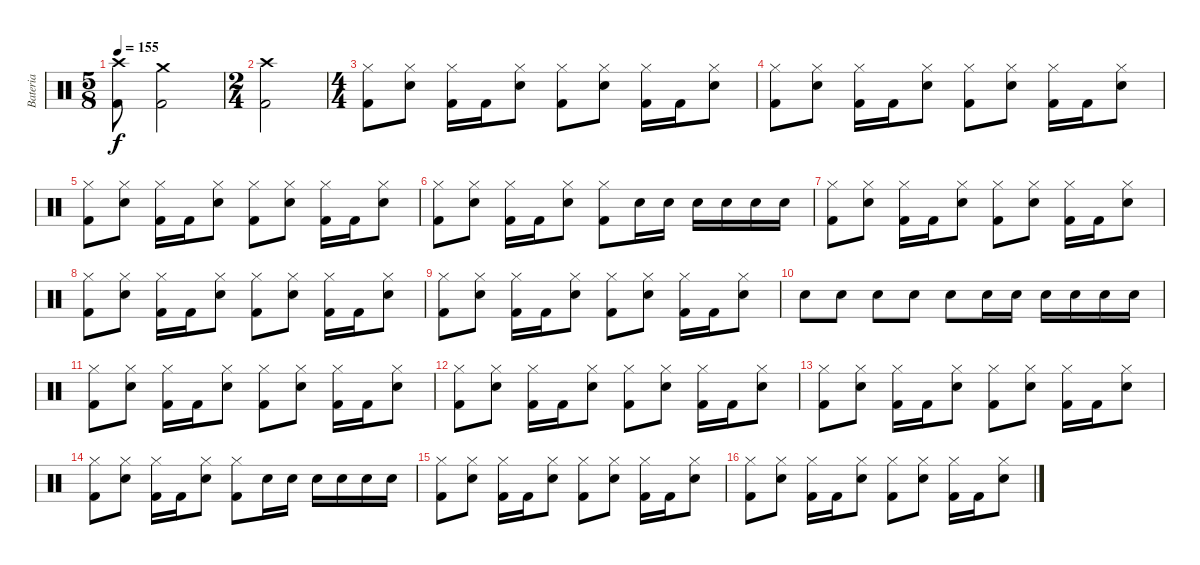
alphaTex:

\track ("Bateria" "Bateria") {instrument percussion}
\staff {score}
\articulation defaults
\ts (5 8)
\tempo 155
\clef neutral
\ks c
("Kick (hit) 2"{t} "Crash high (hit)"{t}).8{dy f} ("Kick (hit) 2" "Crash medium (hit)").2 |
\ts (2 4)
("Kick (hit) 2" "Crash high (hit)").2 |
\ts (4 4)
("Kick (hit) 2" "Hi-Hat (closed)").8 ("Electric Snare (hit)" "Hi-Hat (closed)").8 ("Kick (hit) 2" "Hi-Hat (closed)").16 "Kick (hit) 2".16 ("Electric Snare (hit)" "Hi-Hat (closed)").8 ("Kick (hit) 2" "Hi-Hat (closed)").8 ("Electric Snare (hit)" "Hi-Hat (closed)").8 ("Kick (hit) 2" "Hi-Hat (closed)").16 "Kick (hit) 2".16 ("Electric Snare (hit)" "Hi-Hat (closed)").8 |
("Kick (hit) 2" "Hi-Hat (closed)").8 ("Electric Snare (hit)" "Hi-Hat (closed)").8 ("Kick (hit) 2" "Hi-Hat (closed)").16 "Kick (hit) 2".16 ("Electric Snare (hit)" "Hi-Hat (closed)").8 ("Kick (hit) 2" "Hi-Hat (closed)").8 ("Electric Snare (hit)" "Hi-Hat (closed)").8 ("Kick (hit) 2" "Hi-Hat (closed)").16 "Kick (hit) 2".16 ("Electric Snare (hit)" "Hi-Hat (closed)").8 |
("Kick (hit) 2" "Hi-Hat (closed)").8 ("Electric Snare (hit)" "Hi-Hat (closed)").8 ("Kick (hit) 2" "Hi-Hat (closed)").16 "Kick (hit) 2".16 ("Electric Snare (hit)" "Hi-Hat (closed)").8 ("Kick (hit) 2" "Hi-Hat (closed)").8 ("Electric Snare (hit)" "Hi-Hat (closed)").8 ("Kick (hit) 2" "Hi-Hat (closed)").16 "Kick (hit) 2".16 ("Electric Snare (hit)" "Hi-Hat (closed)").8 |
("Kick (hit) 2" "Hi-Hat (closed)").8 ("Electric Snare (hit)" "Hi-Hat (closed)").8 ("Kick (hit) 2" "Hi-Hat (closed)").16 "Kick (hit) 2".16 ("Electric Snare (hit)" "Hi-Hat (closed)").8 ("Kick (hit) 2" "Hi-Hat (closed)").8 "Electric Snare (hit)".16 "Electric Snare (hit)".16 "Electric Snare (hit)".16 "Electric Snare (hit)".16 "Electric Snare (hit)".16 "Electric Snare (hit)".16 |
("Kick (hit) 2" "Hi-Hat (closed)").8 ("Electric Snare (hit)" "Hi-Hat (closed)").8 ("Kick (hit) 2" "Hi-Hat (closed)").16 "Kick (hit) 2".16 ("Electric Snare (hit)" "Hi-Hat (closed)").8 ("Kick (hit) 2" "Hi-Hat (closed)").8 ("Electric Snare (hit)" "Hi-Hat (closed)").8 ("Kick (hit) 2" "Hi-Hat (closed)").16 "Kick (hit) 2".16 ("Electric Snare (hit)" "Hi-Hat (closed)").8 |
("Kick (hit) 2" "Hi-Hat (closed)").8 ("Electric Snare (hit)" "Hi-Hat (closed)").8 ("Kick (hit) 2" "Hi-Hat (closed)").16 "Kick (hit) 2".16 ("Electric Snare (hit)" "Hi-Hat (closed)").8 ("Kick (hit) 2" "Hi-Hat (closed)").8 ("Electric Snare (hit)" "Hi-Hat (closed)").8 ("Kick (hit) 2" "Hi-Hat (closed)").16 "Kick (hit) 2".16 ("Electric Snare (hit)" "Hi-Hat (closed)").8 |
("Kick (hit) 2" "Hi-Hat (closed)").8 ("Electric Snare (hit)" "Hi-Hat (closed)").8 ("Kick (hit) 2" "Hi-Hat (closed)").16 "Kick (hit) 2".16 ("Electric Snare (hit)" "Hi-Hat (closed)").8 ("Kick (hit) 2" "Hi-Hat (closed)").8 ("Electric Snare (hit)" "Hi-Hat (closed)").8 ("Kick (hit) 2" "Hi-Hat (closed)").16 "Kick (hit) 2".16 ("Electric Snare (hit)" "Hi-Hat (closed)").8 |
"Electric Snare (hit)".8 "Electric Snare (hit)".8 "Electric Snare (hit)".8 "Electric Snare (hit)".8 "Electric Snare (hit)".8 "Electric Snare (hit)".16 "Electric Snare (hit)".16 "Electric Snare (hit)".16 "Electric Snare (hit)".16 "Electric Snare (hit)".16 "Electric Snare (hit)".16 |
("Kick (hit) 2" "Hi-Hat (closed)").8 ("Electric Snare (hit)" "Hi-Hat (closed)").8 ("Kick (hit) 2" "Hi-Hat (closed)").16 "Kick (hit) 2".16 ("Electric Snare (hit)" "Hi-Hat (closed)").8 ("Kick (hit) 2" "Hi-Hat (closed)").8 ("Electric Snare (hit)" "Hi-Hat (closed)").8 ("Kick (hit) 2" "Hi-Hat (closed)").16 "Kick (hit) 2".16 ("Electric Snare (hit)" "Hi-Hat (closed)").8 |
("Kick (hit) 2" "Hi-Hat (closed)").8 ("Electric Snare (hit)" "Hi-Hat (closed)").8 ("Kick (hit) 2" "Hi-Hat (closed)").16 "Kick (hit) 2".16 ("Electric Snare (hit)" "Hi-Hat (closed)").8 ("Kick (hit) 2" "Hi-Hat (closed)").8 ("Electric Snare (hit)" "Hi-Hat (closed)").8 ("Kick (hit) 2" "Hi-Hat (closed)").16 "Kick (hit) 2".16 ("Electric Snare (hit)" "Hi-Hat (closed)").8 |
("Kick (hit) 2" "Hi-Hat (closed)").8 ("Electric Snare (hit)" "Hi-Hat (closed)").8 ("Kick (hit) 2" "Hi-Hat (closed)").16 "Kick (hit) 2".16 ("Electric Snare (hit)" "Hi-Hat (closed)").8 ("Kick (hit) 2" "Hi-Hat (closed)").8 ("Electric Snare (hit)" "Hi-Hat (closed)").8 ("Kick (hit) 2" "Hi-Hat (closed)").16 "Kick (hit) 2".16 ("Electric Snare (hit)" "Hi-Hat (closed)").8 |
("Kick (hit) 2" "Hi-Hat (closed)").8 ("Electric Snare (hit)" "Hi-Hat (closed)").8 ("Kick (hit) 2" "Hi-Hat (closed)").16 "Kick (hit) 2".16 ("Electric Snare (hit)" "Hi-Hat (closed)").8 ("Kick (hit) 2" "Hi-Hat (closed)").8 "Electric Snare (hit)".16 "Electric Snare (hit)".16 "Electric Snare (hit)".16 "Electric Snare (hit)".16 "Electric Snare (hit)".16 "Electric Snare (hit)".16 |
("Kick (hit) 2" "Hi-Hat (closed)").8 ("Electric Snare (hit)" "Hi-Hat (closed)").8 ("Kick (hit) 2" "Hi-Hat (closed)").16 "Kick (hit) 2".16 ("Electric Snare (hit)" "Hi-Hat (closed)").8 ("Kick (hit) 2" "Hi-Hat (closed)").8 ("Electric Snare (hit)" "Hi-Hat (closed)").8 ("Kick (hit) 2" "Hi-Hat (closed)").16 "Kick (hit) 2".16 ("Electric Snare (hit)" "Hi-Hat (closed)").8 |
("Kick (hit) 2" "Hi-Hat (closed)").8 ("Electric Snare (hit)" "Hi-Hat (closed)").8 ("Kick (hit) 2" "Hi-Hat (closed)").16 "Kick (hit) 2".16 ("Electric Snare (hit)" "Hi-Hat (closed)").8 ("Kick (hit) 2" "Hi-Hat (closed)").8 ("Electric Snare (hit)" "Hi-Hat (closed)").8 ("Kick (hit) 2" "Hi-Hat (closed)").16 "Kick (hit) 2".16 ("Electric Snare (hit)" "Hi-Hat (closed)").8
